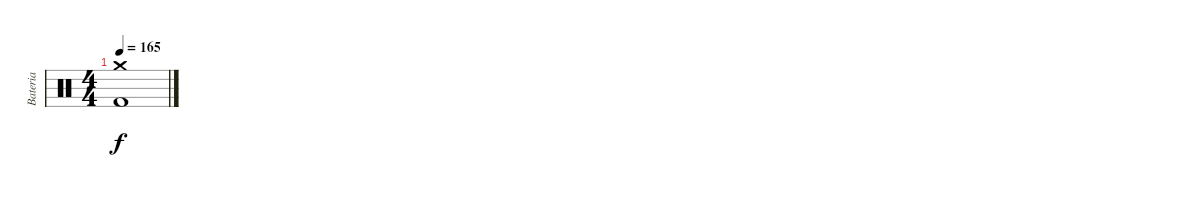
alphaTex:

\track ("Bateria" "Bateria") {instrument percussion}
\staff {score}
\articulation defaults
\ts (4 4)
\tempo 165
\clef neutral
\ks c
("Crash medium (hit)" "Kick (hit) 2").1{dy f}
